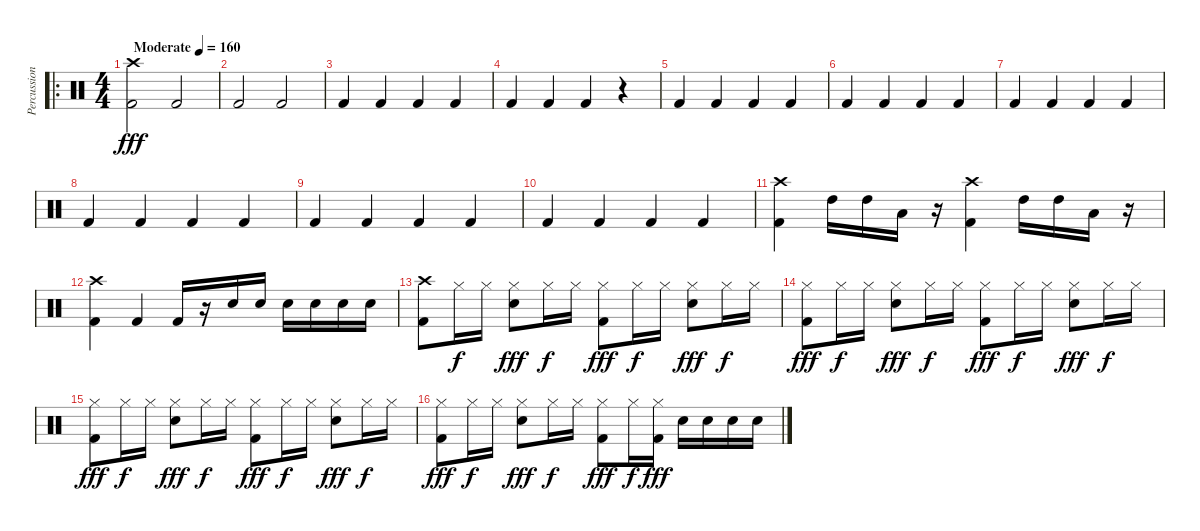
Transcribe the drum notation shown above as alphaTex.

\track ("Percussions" "Percussion") {instrument percussion}
\staff {score}
\articulation defaults
\ro
\ts (4 4)
\tempo (160 "Moderate")
\clef neutral
\ks c
("Crash high (hit)" "Kick (hit) 2").2{dy fff} "Kick (hit) 2".2 |
"Kick (hit) 2".2 "Kick (hit) 2".2 |
"Kick (hit) 2".4 "Kick (hit) 2".4 "Kick (hit) 2".4 "Kick (hit) 2".4 |
"Kick (hit) 2".4 "Kick (hit) 2".4 "Kick (hit) 2".4 r.4 |
"Kick (hit) 2".4 "Kick (hit) 2".4 "Kick (hit) 2".4 "Kick (hit) 2".4 |
"Kick (hit) 2".4 "Kick (hit) 2".4 "Kick (hit) 2".4 "Kick (hit) 2".4 |
"Kick (hit) 2".4 "Kick (hit) 2".4 "Kick (hit) 2".4 "Kick (hit) 2".4 |
"Kick (hit) 2".4 "Kick (hit) 2".4 "Kick (hit) 2".4 "Kick (hit) 2".4 |
"Kick (hit) 2".4 "Kick (hit) 2".4 "Kick (hit) 2".4 "Kick (hit) 2".4 |
"Kick (hit) 2".4 "Kick (hit) 2".4 "Kick (hit) 2".4 "Kick (hit) 2".4 |
("Crash high (hit)" "Kick (hit) 2").4 "High Tom (hit)".16 "High Tom (hit)".16 "Low Tom (hit)".16 r.16 ("Crash high (hit)" "Kick (hit) 2").4 "High Tom (hit)".16 "High Tom (hit)".16 "Low Tom (hit)".16 r.16 |
("Crash high (hit)" "Kick (hit) 2").4 "Kick (hit) 2".4 "Kick (hit) 2".16 r.16 "Electric Snare (hit)".16 "Electric Snare (hit)".16 "Electric Snare (hit)".16 "Electric Snare (hit)".16 "Electric Snare (hit)".16 "Electric Snare (hit)".16 |
("Crash high (hit)" "Kick (hit) 2").8 "Hi-Hat (closed)".16{dy f} "Hi-Hat (closed)".16 ("Hi-Hat (closed)" "Electric Snare (hit)").8{dy fff} "Hi-Hat (closed)".16{dy f} "Hi-Hat (closed)".16 ("Hi-Hat (closed)" "Kick (hit) 2").8{dy fff} "Hi-Hat (closed)".16{dy f} "Hi-Hat (closed)".16 ("Hi-Hat (closed)" "Electric Snare (hit)").8{dy fff} "Hi-Hat (closed)".16{dy f} "Hi-Hat (closed)".16 |
("Hi-Hat (closed)" "Kick (hit) 2").8{dy fff} "Hi-Hat (closed)".16{dy f} "Hi-Hat (closed)".16 ("Hi-Hat (closed)" "Electric Snare (hit)").8{dy fff} "Hi-Hat (closed)".16{dy f} "Hi-Hat (closed)".16 ("Hi-Hat (closed)" "Kick (hit) 2").8{dy fff} "Hi-Hat (closed)".16{dy f} "Hi-Hat (closed)".16 ("Hi-Hat (closed)" "Electric Snare (hit)").8{dy fff} "Hi-Hat (closed)".16{dy f} "Hi-Hat (closed)".16 |
("Hi-Hat (closed)" "Kick (hit) 2").8{dy fff} "Hi-Hat (closed)".16{dy f} "Hi-Hat (closed)".16 ("Hi-Hat (closed)" "Electric Snare (hit)").8{dy fff} "Hi-Hat (closed)".16{dy f} "Hi-Hat (closed)".16 ("Hi-Hat (closed)" "Kick (hit) 2").8{dy fff} "Hi-Hat (closed)".16{dy f} "Hi-Hat (closed)".16 ("Hi-Hat (closed)" "Electric Snare (hit)").8{dy fff} "Hi-Hat (closed)".16{dy f} "Hi-Hat (closed)".16 |
("Hi-Hat (closed)" "Kick (hit) 2").8{dy fff} "Hi-Hat (closed)".16{dy f} "Hi-Hat (closed)".16 ("Hi-Hat (closed)" "Electric Snare (hit)").8{dy fff} "Hi-Hat (closed)".16{dy f} "Hi-Hat (closed)".16 ("Hi-Hat (closed)" "Kick (hit) 2").8{dy fff} "Hi-Hat (closed)".16{dy f} ("Hi-Hat (closed)" "Kick (hit) 2").16{dy fff} "Electric Snare (hit)".16 "Electric Snare (hit)".16 "Electric Snare (hit)".16 "Electric Snare (hit)".16
